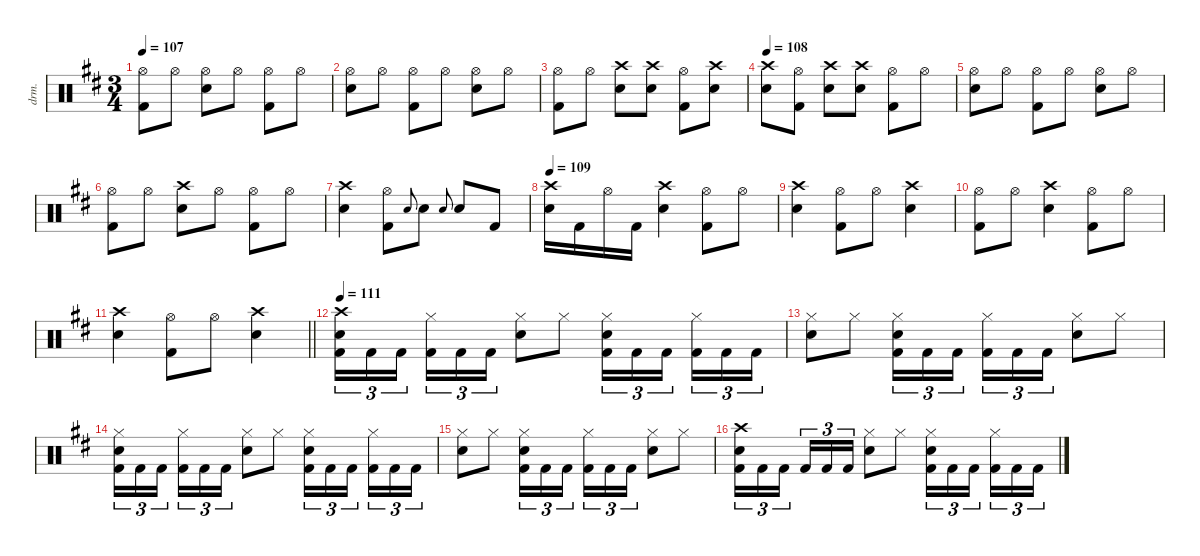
\defaultSystemsLayout 4
\hideDynamics
\bracketExtendMode nobrackets
\otherSystemsTrackNameOrientation horizontal
\track ("Lars Ulrich" "drm.") {defaultSystemsLayout 4 instrument percussion}
\staff {score}
\articulation defaults
\ts (3 4)
\tempo 107
\clef neutral
\ks bminor
("Hi-Hat (open)"{acc forcenatural} "Kick (hit) 2"{acc forcenatural}).8{dy f} "Hi-Hat (open)"{acc forcenatural}.8 ("Hi-Hat (open)"{acc forcenatural} "Snare (hit) 2"{acc forcenatural}).8 "Hi-Hat (open)"{acc forcenatural}.8 ("Hi-Hat (open)"{acc forcenatural} "Kick (hit) 2"{acc forcenatural}).8 "Hi-Hat (open)"{acc forcenatural}.8 |
("Hi-Hat (open)"{acc forcenatural} "Snare (hit) 2"{acc forcenatural}).8 "Hi-Hat (open)"{acc forcenatural}.8 ("Hi-Hat (open)"{acc forcenatural} "Kick (hit) 2"{acc forcenatural}).8 "Hi-Hat (open)"{acc forcenatural}.8 ("Hi-Hat (open)"{acc forcenatural} "Snare (hit) 2"{acc forcenatural}).8 "Hi-Hat (open)"{acc forcenatural}.8 |
("Hi-Hat (open)"{acc forcenatural} "Kick (hit) 2"{acc forcenatural}).8 "Hi-Hat (open)"{acc forcenatural}.8 ("Crash high (hit)"{acc forcenatural} "Snare (hit) 2"{acc forcenatural}).8 ("Crash high (hit)"{acc forcenatural} "Snare (hit) 2"{acc forcenatural}).8 ("Hi-Hat (open)"{acc forcenatural} "Kick (hit) 2"{acc forcenatural}).8 ("Crash high (hit)"{acc forcenatural} "Snare (hit) 2"{acc forcenatural}).8 |
\tempo 108
("Crash high (hit)"{acc forcenatural} "Snare (hit) 2"{acc forcenatural}).8 ("Hi-Hat (open)"{acc forcenatural} "Kick (hit) 2"{acc forcenatural}).8 ("Crash high (hit)"{acc forcenatural} "Snare (hit) 2"{acc forcenatural}).8 ("Crash high (hit)"{acc forcenatural} "Snare (hit) 2"{acc forcenatural}).8 ("Hi-Hat (open)"{acc forcenatural} "Kick (hit) 2"{acc forcenatural}).8 "Hi-Hat (open)"{acc forcenatural}.8 |
("Hi-Hat (open)"{acc forcenatural} "Snare (hit) 2"{acc forcenatural}).8 "Hi-Hat (open)"{acc forcenatural}.8 ("Hi-Hat (open)"{acc forcenatural} "Kick (hit) 2"{acc forcenatural}).8 "Hi-Hat (open)"{acc forcenatural}.8 ("Hi-Hat (open)"{acc forcenatural} "Snare (hit) 2"{acc forcenatural}).8 "Hi-Hat (open)"{acc forcenatural}.8 |
("Hi-Hat (open)"{acc forcenatural} "Kick (hit) 2"{acc forcenatural}).8 "Hi-Hat (open)"{acc forcenatural}.8 ("Crash high (hit)"{acc forcenatural} "Snare (hit) 2"{acc forcenatural}).8 "Hi-Hat (open)"{acc forcenatural}.8 ("Hi-Hat (open)"{acc forcenatural} "Kick (hit) 2"{acc forcenatural}).8 "Hi-Hat (open)"{acc forcenatural}.8 |
("Crash high (hit)"{acc forcenatural} "Snare (hit) 2"{acc forcenatural}).4 ("Hi-Hat (open)"{acc forcenatural} "Kick (hit) 2"{acc forcenatural}).8 "Electric Snare (hit)"{acc forcenatural}.8{gr onbeat dy mp} "Snare (hit) 2"{acc forcenatural}.8{dy f} "Electric Snare (hit)"{acc forcenatural}.8{gr onbeat dy mp} "Snare (hit) 2"{acc forcenatural}.8{dy f} "Kick (hit) 2"{acc forcenatural}.8{dy fff} |
\tempo 109
("Crash high (hit)"{acc forcenatural} "Snare (hit) 2"{acc forcenatural}).16{dy f} "Kick (hit) 2"{acc forcenatural}.16{dy fff} "Hi-Hat (open)"{acc forcenatural}.16{dy f} "Kick (hit) 2"{acc forcenatural}.16{dy fff} ("Crash high (hit)"{acc forcenatural} "Snare (hit) 2"{acc forcenatural}).4{dy f} ("Hi-Hat (open)"{acc forcenatural} "Kick (hit) 2"{acc forcenatural}).8 "Hi-Hat (open)"{acc forcenatural}.8 |
("Crash high (hit)"{acc forcenatural} "Snare (hit) 2"{acc forcenatural}).4 ("Hi-Hat (open)"{acc forcenatural} "Kick (hit) 2"{acc forcenatural}).8 "Hi-Hat (open)"{acc forcenatural}.8 ("Crash high (hit)"{acc forcenatural} "Snare (hit) 2"{acc forcenatural}).4 |
("Hi-Hat (open)"{acc forcenatural} "Kick (hit) 2"{acc forcenatural}).8 "Hi-Hat (open)"{acc forcenatural}.8 ("Crash high (hit)"{acc forcenatural} "Snare (hit) 2"{acc forcenatural}).4 ("Hi-Hat (open)"{acc forcenatural} "Kick (hit) 2"{acc forcenatural}).8 "Hi-Hat (open)"{acc forcenatural}.8 |
\barLineRight lightlight
("Crash high (hit)"{acc forcenatural} "Snare (hit) 2"{acc forcenatural}).4 ("Hi-Hat (open)"{acc forcenatural} "Kick (hit) 2"{acc forcenatural}).8 "Hi-Hat (open)"{acc forcenatural}.8 ("Crash high (hit)"{acc forcenatural} "Snare (hit) 2"{acc forcenatural}).4 |
\tempo 111
("Crash high (hit)"{acc forcenatural} "Snare (hit) 2"{acc forcenatural} "Kick (hit) 2"{acc forcenatural}).16{tu (3 2)} "Kick (hit) 2"{acc forcenatural}.16{tu (3 2)} "Kick (hit) 2"{acc forcenatural}.16{tu (3 2)} ("Hi-Hat (closed)"{acc forcenatural} "Kick (hit) 2"{acc forcenatural}).16{tu (3 2)} "Kick (hit) 2"{acc forcenatural}.16{tu (3 2)} "Kick (hit) 2"{acc forcenatural}.16{tu (3 2)} ("Hi-Hat (closed)"{acc forcenatural} "Snare (hit) 2"{acc forcenatural}).8 "Hi-Hat (closed)"{acc forcenatural}.8 ("Hi-Hat (closed)"{acc forcenatural} "Snare (hit) 2"{acc forcenatural} "Kick (hit) 2"{acc forcenatural}).16{tu (3 2)} "Kick (hit) 2"{acc forcenatural}.16{tu (3 2)} "Kick (hit) 2"{acc forcenatural}.16{tu (3 2)} ("Hi-Hat (closed)"{acc forcenatural} "Kick (hit) 2"{acc forcenatural}).16{tu (3 2)} "Kick (hit) 2"{acc forcenatural}.16{tu (3 2)} "Kick (hit) 2"{acc forcenatural}.16{tu (3 2)} |
("Hi-Hat (closed)"{acc forcenatural} "Snare (hit) 2"{acc forcenatural}).8 "Hi-Hat (closed)"{acc forcenatural}.8 ("Hi-Hat (closed)"{acc forcenatural} "Snare (hit) 2"{acc forcenatural} "Kick (hit) 2"{acc forcenatural}).16{tu (3 2)} "Kick (hit) 2"{acc forcenatural}.16{tu (3 2)} "Kick (hit) 2"{acc forcenatural}.16{tu (3 2)} ("Hi-Hat (closed)"{acc forcenatural} "Kick (hit) 2"{acc forcenatural}).16{tu (3 2)} "Kick (hit) 2"{acc forcenatural}.16{tu (3 2)} "Kick (hit) 2"{acc forcenatural}.16{tu (3 2)} ("Hi-Hat (closed)"{acc forcenatural} "Snare (hit) 2"{acc forcenatural}).8 "Hi-Hat (closed)"{acc forcenatural}.8 |
("Hi-Hat (closed)"{acc forcenatural} "Snare (hit) 2"{acc forcenatural} "Kick (hit) 2"{acc forcenatural}).16{tu (3 2)} "Kick (hit) 2"{acc forcenatural}.16{tu (3 2)} "Kick (hit) 2"{acc forcenatural}.16{tu (3 2)} ("Hi-Hat (closed)"{acc forcenatural} "Kick (hit) 2"{acc forcenatural}).16{tu (3 2)} "Kick (hit) 2"{acc forcenatural}.16{tu (3 2)} "Kick (hit) 2"{acc forcenatural}.16{tu (3 2)} ("Hi-Hat (closed)"{acc forcenatural} "Snare (hit) 2"{acc forcenatural}).8 "Hi-Hat (closed)"{acc forcenatural}.8 ("Hi-Hat (closed)"{acc forcenatural} "Snare (hit) 2"{acc forcenatural} "Kick (hit) 2"{acc forcenatural}).16{tu (3 2)} "Kick (hit) 2"{acc forcenatural}.16{tu (3 2)} "Kick (hit) 2"{acc forcenatural}.16{tu (3 2)} ("Hi-Hat (closed)"{acc forcenatural} "Kick (hit) 2"{acc forcenatural}).16{tu (3 2)} "Kick (hit) 2"{acc forcenatural}.16{tu (3 2)} "Kick (hit) 2"{acc forcenatural}.16{tu (3 2)} |
("Hi-Hat (closed)"{acc forcenatural} "Snare (hit) 2"{acc forcenatural}).8 "Hi-Hat (closed)"{acc forcenatural}.8 ("Hi-Hat (closed)"{acc forcenatural} "Snare (hit) 2"{acc forcenatural} "Kick (hit) 2"{acc forcenatural}).16{tu (3 2)} "Kick (hit) 2"{acc forcenatural}.16{tu (3 2)} "Kick (hit) 2"{acc forcenatural}.16{tu (3 2)} ("Hi-Hat (closed)"{acc forcenatural} "Kick (hit) 2"{acc forcenatural}).16{tu (3 2)} "Kick (hit) 2"{acc forcenatural}.16{tu (3 2)} "Kick (hit) 2"{acc forcenatural}.16{tu (3 2)} ("Hi-Hat (closed)"{acc forcenatural} "Snare (hit) 2"{acc forcenatural}).8 "Hi-Hat (closed)"{acc forcenatural}.8 |
("Crash high (hit)"{acc forcenatural} "Snare (hit) 2"{acc forcenatural} "Kick (hit) 2"{acc forcenatural}).16{tu (3 2)} "Kick (hit) 2"{acc forcenatural}.16{tu (3 2)} "Kick (hit) 2"{acc forcenatural}.16{tu (3 2)} "Kick (hit) 2"{acc forcenatural}.16{tu (3 2)} "Kick (hit) 2"{acc forcenatural}.16{tu (3 2)} "Kick (hit) 2"{acc forcenatural}.16{tu (3 2)} ("Hi-Hat (closed)"{acc forcenatural} "Snare (hit) 2"{acc forcenatural}).8 "Hi-Hat (closed)"{acc forcenatural}.8 ("Hi-Hat (closed)"{acc forcenatural} "Snare (hit) 2"{acc forcenatural} "Kick (hit) 2"{acc forcenatural}).16{tu (3 2)} "Kick (hit) 2"{acc forcenatural}.16{tu (3 2)} "Kick (hit) 2"{acc forcenatural}.16{tu (3 2)} ("Hi-Hat (closed)"{acc forcenatural} "Kick (hit) 2"{acc forcenatural}).16{tu (3 2)} "Kick (hit) 2"{acc forcenatural}.16{tu (3 2)} "Kick (hit) 2"{acc forcenatural}.16{tu (3 2)}
